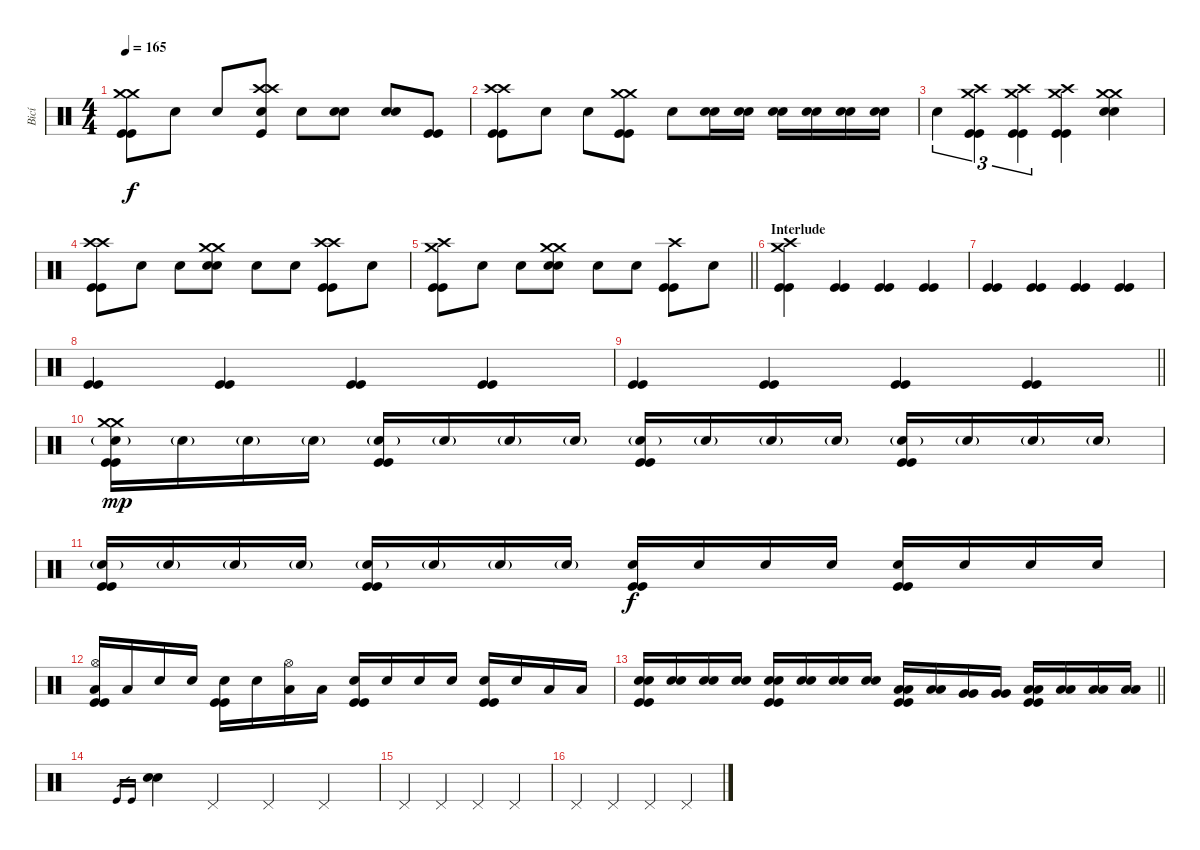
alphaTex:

\track ("Bicí" "Bicí") {instrument percussion}
\staff {score}
\articulation defaults
\ts (4 4)
\tempo 165
\clef neutral
\ks c
("Crash medium (hit)" "Crash medium (hit)" "Kick (hit)" "Kick (hit)").8{dy f} "Snare (hit)".8 "Snare (hit)".8 ("Crash high (hit)" "Crash high (hit)" "Electric Snare (hit)" "Kick (hit)").8 "Snare (hit)".8 ("Electric Snare (hit)" "Electric Snare (hit)").8 ("Electric Snare (hit)" "Electric Snare (hit)").8 ("Kick (hit)" "Kick (hit)").8 |
("Crash high (hit)" "Crash high (hit)" "Kick (hit)" "Kick (hit)").8 "Snare (hit)".8 "Snare (hit)".8 ("Crash medium (hit)" "Crash medium (hit)" "Kick (hit)" "Kick (hit)").8 "Snare (hit)".8 ("Electric Snare (hit)" "Electric Snare (hit)").16 ("Electric Snare (hit)" "Electric Snare (hit)").16 ("Electric Snare (hit)" "Electric Snare (hit)").16 ("Electric Snare (hit)" "Electric Snare (hit)").16 ("Electric Snare (hit)" "Electric Snare (hit)").16 ("Electric Snare (hit)" "Electric Snare (hit)").16 |
"Snare (hit)".4{tu (3 2)} ("Crash high (hit)" "Crash medium (hit)" "Kick (hit)" "Kick (hit)").4{tu (3 2)} ("Crash high (hit)" "Crash medium (hit)" "Kick (hit)" "Kick (hit)").4{tu (3 2)} ("Crash high (hit)" "Crash medium (hit)" "Kick (hit)" "Kick (hit)").4 ("Crash medium (hit)" "Crash medium (hit)" "Electric Snare (hit)" "Electric Snare (hit)").4 |
("Crash high (hit)" "Crash high (hit)" "Kick (hit)" "Kick (hit)").8 "Snare (hit)".8 "Snare (hit)".8 ("Crash medium (hit)" "Crash medium (hit)" "Electric Snare (hit)" "Electric Snare (hit)").8 "Snare (hit)".8 "Snare (hit)".8 ("Crash high (hit)" "Crash high (hit)" "Kick (hit)" "Kick (hit)").8 "Snare (hit)".8 |
\barLineRight lightlight
("Crash high (hit)" "Crash medium (hit)" "Kick (hit)" "Kick (hit)").8 "Snare (hit)".8 "Snare (hit)".8 ("Crash medium (hit)" "Crash medium (hit)" "Electric Snare (hit)" "Electric Snare (hit)").8 "Snare (hit)".8 "Snare (hit)".8 ("Crash high (hit)" "Kick (hit)" "Kick (hit)").8 "Snare (hit)".8 |
\section ("" "Interlude")
("Crash high (hit)" "Crash medium (hit)" "Kick (hit)" "Kick (hit)").4 ("Kick (hit)" "Kick (hit)").4 ("Kick (hit)" "Kick (hit)").4 ("Kick (hit)" "Kick (hit)").4 |
("Kick (hit)" "Kick (hit)").4 ("Kick (hit)" "Kick (hit)").4 ("Kick (hit)" "Kick (hit)").4 ("Kick (hit)" "Kick (hit)").4 |
("Kick (hit)" "Kick (hit)").4 ("Kick (hit)" "Kick (hit)").4 ("Kick (hit)" "Kick (hit)").4 ("Kick (hit)" "Kick (hit)").4 |
\barLineRight lightlight
("Kick (hit)" "Kick (hit)").4 ("Kick (hit)" "Kick (hit)").4 ("Kick (hit)" "Kick (hit)").4 ("Kick (hit)" "Kick (hit)").4 |
\section ("" "")
("Crash medium (hit)" "Crash medium (hit)" "Electric Snare (hit)"{g} "Kick (hit)" "Kick (hit)").16{dy mp} "Electric Snare (hit)"{g}.16 "Electric Snare (hit)"{g}.16 "Electric Snare (hit)"{g}.16 ("Electric Snare (hit)"{g} "Kick (hit)" "Kick (hit)").16 "Electric Snare (hit)"{g}.16 "Electric Snare (hit)"{g}.16 "Electric Snare (hit)"{g}.16 ("Electric Snare (hit)"{g} "Kick (hit)" "Kick (hit)").16 "Electric Snare (hit)"{g}.16 "Electric Snare (hit)"{g}.16 "Electric Snare (hit)"{g}.16 ("Electric Snare (hit)"{g} "Kick (hit)" "Kick (hit)").16 "Electric Snare (hit)"{g}.16 "Electric Snare (hit)"{g}.16 "Electric Snare (hit)"{g}.16 |
("Electric Snare (hit)"{g} "Kick (hit)" "Kick (hit)").16 "Electric Snare (hit)"{g}.16 "Electric Snare (hit)"{g}.16 "Electric Snare (hit)"{g}.16 ("Electric Snare (hit)"{g} "Kick (hit)" "Kick (hit)").16 "Electric Snare (hit)"{g}.16 "Electric Snare (hit)"{g}.16 "Electric Snare (hit)"{g}.16 ("Electric Snare (hit)" "Kick (hit)" "Kick (hit)").16{dy f} "Electric Snare (hit)".16 "Electric Snare (hit)".16 "Electric Snare (hit)".16 ("Electric Snare (hit)" "Kick (hit)" "Kick (hit)").16 "Electric Snare (hit)".16 "Electric Snare (hit)".16 "Electric Snare (hit)".16 |
("Hi-Hat (open)" "Low Tom (hit)" "Kick (hit)" "Kick (hit)").16 "Low Tom (hit)".16 "Electric Snare (hit)".16 "Electric Snare (hit)".16 ("Electric Snare (hit)" "Kick (hit)" "Kick (hit)").16 "Electric Snare (hit)".16 ("Hi-Hat (open)" "Low Tom (hit)").16 "Low Tom (hit)".16 ("Electric Snare (hit)" "Kick (hit)" "Kick (hit)").16 "Electric Snare (hit)".16 "Electric Snare (hit)".16 "Electric Snare (hit)".16 ("Electric Snare (hit)" "Kick (hit)" "Kick (hit)").16 "Electric Snare (hit)".16 "Low Tom (hit)".16 "Low Tom (hit)".16 |
\barLineRight lightlight
("Electric Snare (hit)" "Electric Snare (hit)" "Kick (hit)" "Kick (hit)").16 ("Electric Snare (hit)" "Electric Snare (hit)").16 ("Electric Snare (hit)" "Electric Snare (hit)").16 ("Electric Snare (hit)" "Electric Snare (hit)").16 ("Electric Snare (hit)" "Electric Snare (hit)" "Kick (hit)" "Kick (hit)").16 ("Electric Snare (hit)" "Electric Snare (hit)").16 ("Electric Snare (hit)" "Electric Snare (hit)").16 ("Electric Snare (hit)" "Electric Snare (hit)").16 ("Low Tom (hit)" "Low Tom (hit)" "Kick (hit)" "Kick (hit)").16 ("Low Tom (hit)" "Low Tom (hit)").16 ("Very Low Tom (hit)" "Very Low Tom (hit)").16 ("Very Low Tom (hit)" "Very Low Tom (hit)").16 ("Low Floor Tom (hit)" "Low Floor Tom (hit)" "Kick (hit)" "Kick (hit)").16 ("Low Floor Tom (hit)" "Low Floor Tom (hit)").16 ("Low Floor Tom (hit)" "Low Floor Tom (hit)").16 ("Low Floor Tom (hit)" "Low Floor Tom (hit)").16 |
"Kick (hit)".16{gr} "Kick (hit)".16{gr} ("Electric Snare (hit)" "Electric Snare (hit)").4 "Pedal Hi-Hat (hit)".4 "Pedal Hi-Hat (hit)".4 "Pedal Hi-Hat (hit)".4 |
"Pedal Hi-Hat (hit)".4 "Pedal Hi-Hat (hit)".4 "Pedal Hi-Hat (hit)".4 "Pedal Hi-Hat (hit)".4 |
"Pedal Hi-Hat (hit)".4 "Pedal Hi-Hat (hit)".4 "Pedal Hi-Hat (hit)".4 "Pedal Hi-Hat (hit)".4
